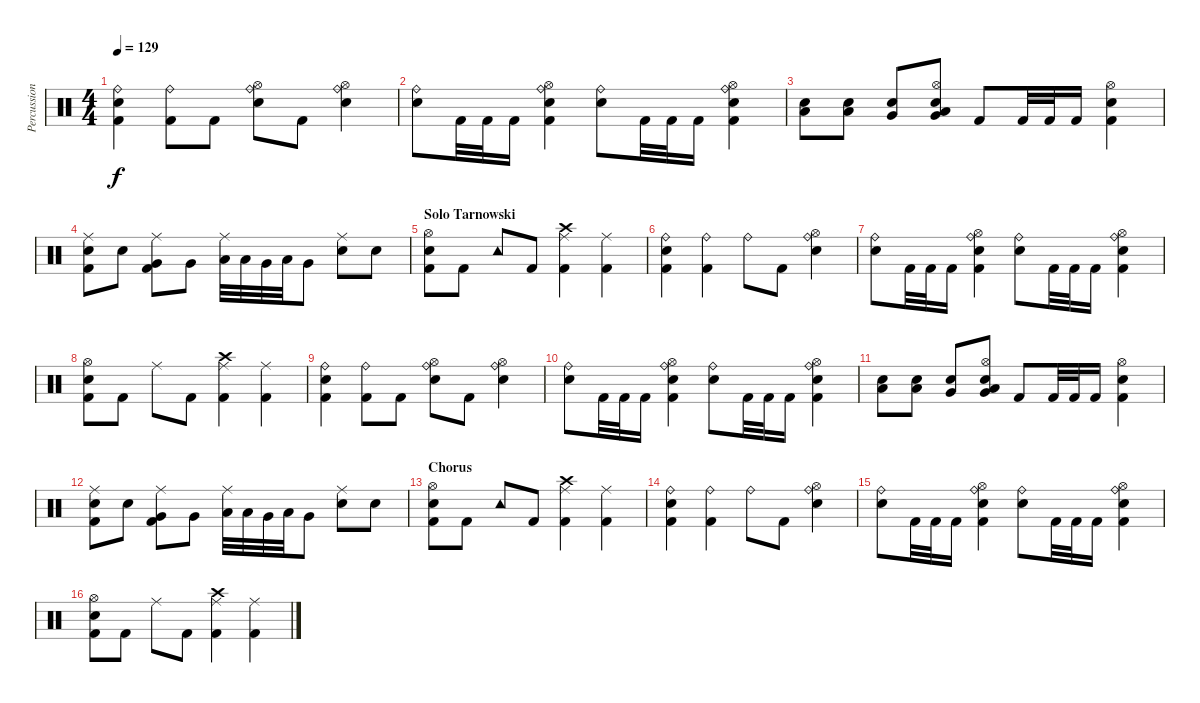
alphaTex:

\track ("Percussion" "Percussion") {instrument percussion}
\staff {score}
\articulation defaults
\ts (4 4)
\tempo 129
\clef neutral
\ks c
("Ride (bell)" "Electric Snare (hit)" "Kick (hit) 2").4{dy f} ("Ride (bell)" "Kick (hit) 2").8 "Kick (hit) 2".8 ("Ride (bell)" "Hi-Hat (open)" "Electric Snare (hit)").8 "Kick (hit) 2".8 ("Ride (bell)" "Hi-Hat (open)" "Electric Snare (hit)").4 |
("Ride (bell)" "Electric Snare (hit)").8 "Kick (hit) 2".32 "Kick (hit) 2".32 "Kick (hit) 2".16 ("Ride (bell)" "Hi-Hat (open)" "Kick (hit) 2" "Electric Snare (hit)").4 ("Ride (bell)" "Electric Snare (hit)").8 "Kick (hit) 2".32 "Kick (hit) 2".32 "Kick (hit) 2".16 ("Ride (bell)" "Hi-Hat (open)" "Kick (hit) 2" "Electric Snare (hit)").4 |
("Low Tom (hit)" "Electric Snare (hit)").8 ("Low Tom (hit)" "Electric Snare (hit)").8 ("Very Low Tom (hit)" "Electric Snare (hit)").8 ("Hi-Hat (open)" "Very Low Tom (hit)" "Low Tom (hit)" "Electric Snare (hit)").8 "Kick (hit) 2".8 "Kick (hit) 2".32 "Kick (hit) 2".32 "Kick (hit) 2".16 ("Hi-Hat (open)" "Kick (hit) 2" "Electric Snare (hit)").4 |
("Ride (middle)" "Electric Snare (hit)" "Kick (hit) 2").8 "Electric Snare (hit)".8 ("Ride (middle)" "Very Low Tom (hit)" "Kick (hit) 2").8 "Very Low Tom (hit)".8 ("Ride (middle)" "Low Tom (hit)").32 "Low Tom (hit)".32 "Very Low Tom (hit)".32 "Low Floor Tom (hit)".32 "Very Low Tom (hit)".8 ("Ride (middle)" "Electric Snare (hit)").8 "Electric Snare (hit)".8 |
\section ("" "Solo Tarnowski")
("Hi-Hat (open)" "Electric Snare (hit)" "Kick (hit) 2").8 "Kick (hit) 2".8 "Tambourine (hit)".8 "Kick (hit) 2".8 ("Ride (middle)" "Crash high (hit)" "Kick (hit) 2").4 ("Ride (middle)" "Kick (hit) 2").4 |
("Ride (bell)" "Electric Snare (hit)" "Kick (hit) 2").4 ("Ride (bell)" "Kick (hit) 2").4 "Ride (bell)".8 "Kick (hit) 2".8 ("Ride (bell)" "Hi-Hat (open)" "Electric Snare (hit)").4 |
("Ride (bell)" "Electric Snare (hit)").8 "Kick (hit) 2".32 "Kick (hit) 2".32 "Kick (hit) 2".16 ("Ride (bell)" "Hi-Hat (open)" "Kick (hit) 2" "Electric Snare (hit)").4 ("Ride (bell)" "Electric Snare (hit)").8 "Kick (hit) 2".32 "Kick (hit) 2".32 "Kick (hit) 2".16 ("Ride (bell)" "Hi-Hat (open)" "Kick (hit) 2" "Electric Snare (hit)").4 |
("Hi-Hat (open)" "Electric Snare (hit)" "Kick (hit) 2").8 "Kick (hit) 2".8 "Ride (middle)".8 "Kick (hit) 2".8 ("Ride (middle)" "Crash high (hit)" "Kick (hit) 2").4 ("Ride (middle)" "Kick (hit) 2").4 |
("Ride (bell)" "Electric Snare (hit)" "Kick (hit) 2").4 ("Ride (bell)" "Kick (hit) 2").8 "Kick (hit) 2".8 ("Ride (bell)" "Hi-Hat (open)" "Electric Snare (hit)").8 "Kick (hit) 2".8 ("Ride (bell)" "Hi-Hat (open)" "Electric Snare (hit)").4 |
("Ride (bell)" "Electric Snare (hit)").8 "Kick (hit) 2".32 "Kick (hit) 2".32 "Kick (hit) 2".16 ("Ride (bell)" "Hi-Hat (open)" "Kick (hit) 2" "Electric Snare (hit)").4 ("Ride (bell)" "Electric Snare (hit)").8 "Kick (hit) 2".32 "Kick (hit) 2".32 "Kick (hit) 2".16 ("Ride (bell)" "Hi-Hat (open)" "Kick (hit) 2" "Electric Snare (hit)").4 |
("Low Tom (hit)" "Electric Snare (hit)").8 ("Low Tom (hit)" "Electric Snare (hit)").8 ("Very Low Tom (hit)" "Electric Snare (hit)").8 ("Hi-Hat (open)" "Very Low Tom (hit)" "Low Tom (hit)" "Electric Snare (hit)").8 "Kick (hit) 2".8 "Kick (hit) 2".32 "Kick (hit) 2".32 "Kick (hit) 2".16 ("Hi-Hat (open)" "Kick (hit) 2" "Electric Snare (hit)").4 |
("Ride (middle)" "Electric Snare (hit)" "Kick (hit) 2").8 "Electric Snare (hit)".8 ("Ride (middle)" "Very Low Tom (hit)" "Kick (hit) 2").8 "Very Low Tom (hit)".8 ("Ride (middle)" "Low Tom (hit)").32 "Low Tom (hit)".32 "Very Low Tom (hit)".32 "Low Floor Tom (hit)".32 "Very Low Tom (hit)".8 ("Ride (middle)" "Electric Snare (hit)").8 "Electric Snare (hit)".8 |
\section ("" "Chorus")
("Hi-Hat (open)" "Electric Snare (hit)" "Kick (hit) 2").8 "Kick (hit) 2".8 "Tambourine (hit)".8 "Kick (hit) 2".8 ("Ride (middle)" "Crash high (hit)" "Kick (hit) 2").4 ("Ride (middle)" "Kick (hit) 2").4 |
("Ride (bell)" "Electric Snare (hit)" "Kick (hit) 2").4 ("Ride (bell)" "Kick (hit) 2").4 "Ride (bell)".8 "Kick (hit) 2".8 ("Ride (bell)" "Hi-Hat (open)" "Electric Snare (hit)").4 |
("Ride (bell)" "Electric Snare (hit)").8 "Kick (hit) 2".32 "Kick (hit) 2".32 "Kick (hit) 2".16 ("Ride (bell)" "Hi-Hat (open)" "Kick (hit) 2" "Electric Snare (hit)").4 ("Ride (bell)" "Electric Snare (hit)").8 "Kick (hit) 2".32 "Kick (hit) 2".32 "Kick (hit) 2".16 ("Ride (bell)" "Hi-Hat (open)" "Kick (hit) 2" "Electric Snare (hit)").4 |
("Hi-Hat (open)" "Electric Snare (hit)" "Kick (hit) 2").8 "Kick (hit) 2".8 "Ride (middle)".8 "Kick (hit) 2".8 ("Ride (middle)" "Crash high (hit)" "Kick (hit) 2").4 ("Ride (middle)" "Kick (hit) 2").4
